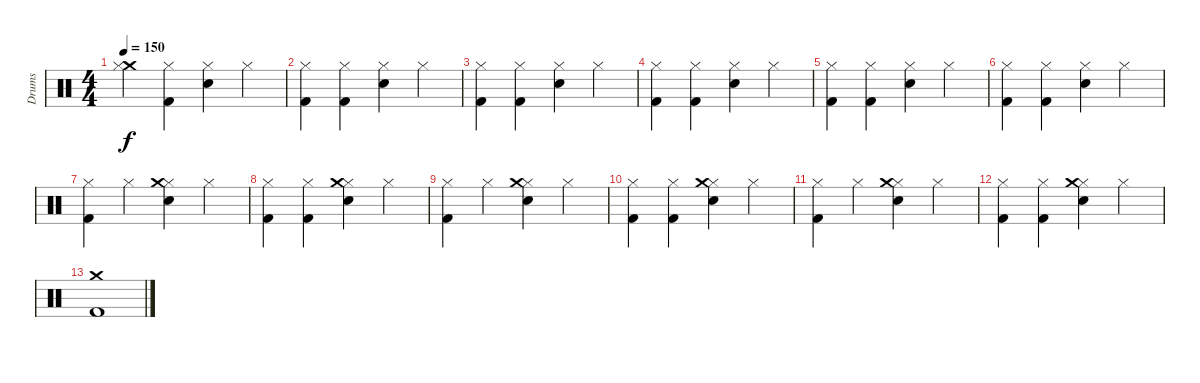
\track ("Drums" "Drums") {instrument percussion}
\staff {score}
\articulation defaults
\ts (4 4)
\tempo 150
\clef neutral
\ks c
("Crash medium (hit)" "Hi-Hat (closed)").4{dy f} ("Hi-Hat (closed)" "Kick (hit) 2").4 ("Hi-Hat (closed)" "Snare (hit) 2").4 "Hi-Hat (closed)".4 |
("Kick (hit) 2" "Hi-Hat (closed)").4 ("Hi-Hat (closed)" "Kick (hit) 2").4 ("Hi-Hat (closed)" "Snare (hit) 2").4 "Hi-Hat (closed)".4 |
("Kick (hit) 2" "Hi-Hat (closed)").4 ("Hi-Hat (closed)" "Kick (hit) 2").4 ("Hi-Hat (closed)" "Snare (hit) 2").4 "Hi-Hat (closed)".4 |
("Kick (hit) 2" "Hi-Hat (closed)").4 ("Hi-Hat (closed)" "Kick (hit) 2").4 ("Hi-Hat (closed)" "Snare (hit) 2").4 "Hi-Hat (closed)".4 |
("Kick (hit) 2" "Hi-Hat (closed)").4 ("Hi-Hat (closed)" "Kick (hit) 2").4 ("Hi-Hat (closed)" "Snare (hit) 2").4 "Hi-Hat (closed)".4 |
("Kick (hit) 2" "Hi-Hat (closed)").4 ("Hi-Hat (closed)" "Kick (hit) 2").4 ("Hi-Hat (closed)" "Snare (hit) 2").4 "Hi-Hat (closed)".4 |
("Kick (hit) 2" "Hi-Hat (closed)").4 "Hi-Hat (closed)".4 ("Hi-Hat (closed)" "Snare (hit) 2" "Crash medium (hit)").4 "Hi-Hat (closed)".4 |
("Kick (hit) 2" "Hi-Hat (closed)").4 ("Hi-Hat (closed)" "Kick (hit) 2").4 ("Hi-Hat (closed)" "Snare (hit) 2" "Crash medium (hit)").4 "Hi-Hat (closed)".4 |
("Kick (hit) 2" "Hi-Hat (closed)").4 "Hi-Hat (closed)".4 ("Hi-Hat (closed)" "Snare (hit) 2" "Crash medium (hit)").4 "Hi-Hat (closed)".4 |
("Kick (hit) 2" "Hi-Hat (closed)").4 ("Hi-Hat (closed)" "Kick (hit) 2").4 ("Hi-Hat (closed)" "Snare (hit) 2" "Crash medium (hit)").4 "Hi-Hat (closed)".4 |
("Kick (hit) 2" "Hi-Hat (closed)").4 "Hi-Hat (closed)".4 ("Hi-Hat (closed)" "Snare (hit) 2" "Crash medium (hit)").4 "Hi-Hat (closed)".4 |
("Kick (hit) 2" "Hi-Hat (closed)").4 ("Hi-Hat (closed)" "Kick (hit) 2").4 ("Hi-Hat (closed)" "Snare (hit) 2" "Crash medium (hit)").4 "Hi-Hat (closed)".4 |
("Crash medium (hit)" "Kick (hit) 2").1
